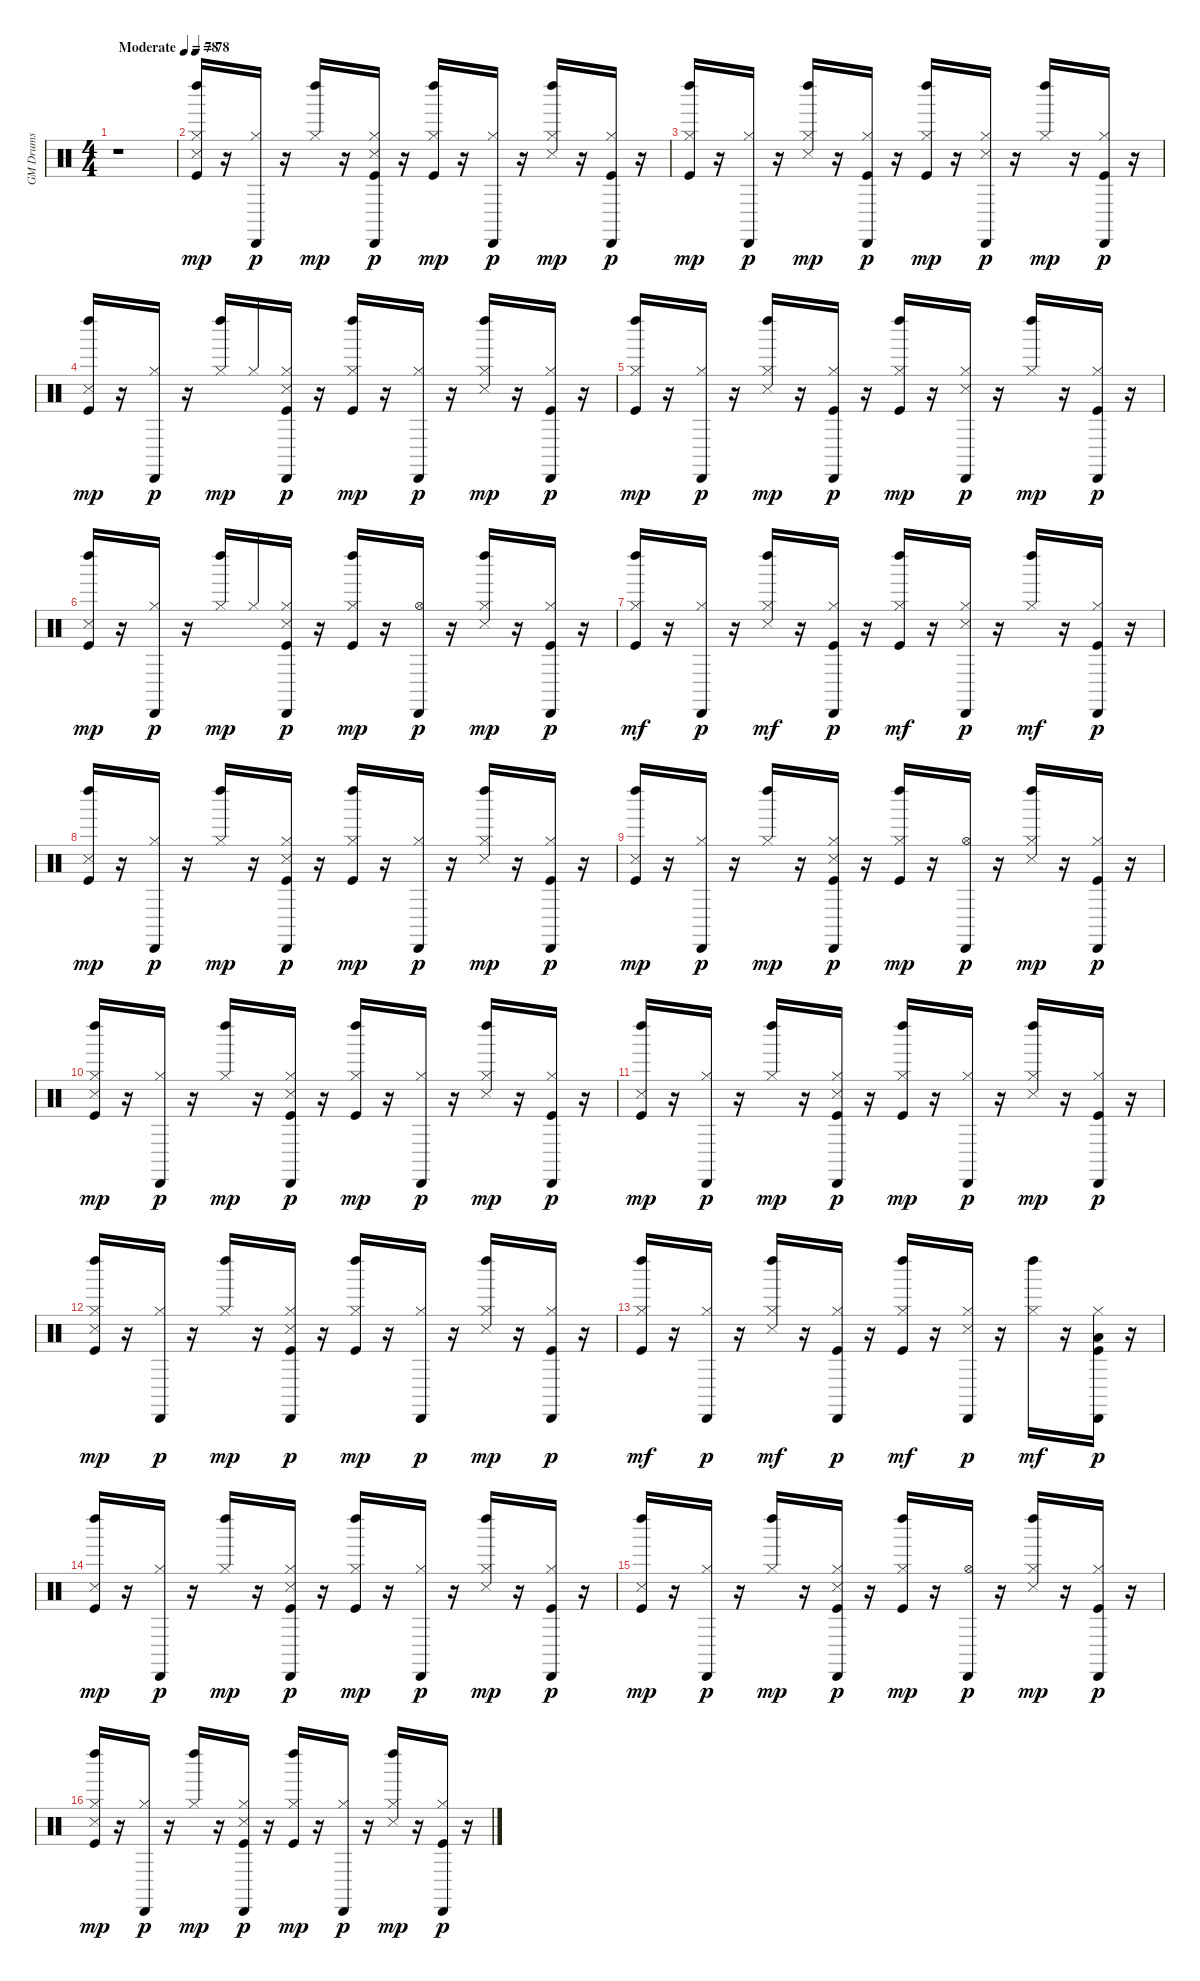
\track ("GM Drums" "GM Drums") {instrument percussion}
\staff {score}
\articulation defaults
\ts (4 4)
\tempo (78 "Moderate")
\clef neutral
\ks c
r.1{dy mp} |
\tempo 78
("Kick (hit)" "Snare (side stick) 3" "Hi-Hat (closed)" "Left Maraca (hit)").16 r.16 ("Hi-Hat (closed)" "Cabasa (hit)").16{dy p} r.16 ("Hi-Hat (closed)" "Left Maraca (hit)").16{dy mp} r.16 ("Kick (hit)" "Snare (side stick) 3" "Hi-Hat (closed)" "Cabasa (hit)").16{dy p} r.16 ("Kick (hit)" "Hi-Hat (closed)" "Left Maraca (hit)").16{dy mp} r.16 ("Hi-Hat (closed)" "Cabasa (hit)").16{dy p} r.16 ("Snare (side stick) 3" "Hi-Hat (closed)" "Left Maraca (hit)").16{dy mp} r.16 ("Kick (hit)" "Hi-Hat (closed)" "Cabasa (hit)").16{dy p} r.16 |
("Kick (hit)" "Hi-Hat (closed)" "Left Maraca (hit)").16{dy mp} r.16 ("Hi-Hat (closed)" "Cabasa (hit)").16{dy p} r.16 ("Snare (side stick) 3" "Hi-Hat (closed)" "Left Maraca (hit)").16{dy mp} r.16 ("Kick (hit)" "Hi-Hat (closed)" "Cabasa (hit)").16{dy p} r.16 ("Kick (hit)" "Hi-Hat (closed)" "Left Maraca (hit)").16{dy mp} r.16 ("Snare (side stick) 3" "Hi-Hat (closed)" "Cabasa (hit)").16{dy p} r.16 ("Hi-Hat (closed)" "Left Maraca (hit)").16{dy mp} r.16 ("Kick (hit)" "Hi-Hat (closed)" "Cabasa (hit)").16{dy p} r.16 |
("Kick (hit)" "Snare (side stick) 3" "Left Maraca (hit)").16{dy mp} r.16 ("Hi-Hat (closed)" "Cabasa (hit)").16{dy p} r.16 ("Hi-Hat (closed)" "Left Maraca (hit)").16{dy mp} "Hi-Hat (closed)".16 ("Kick (hit)" "Snare (side stick) 3" "Hi-Hat (closed)" "Cabasa (hit)").16{dy p} r.16 ("Kick (hit)" "Hi-Hat (closed)" "Left Maraca (hit)").16{dy mp} r.16 ("Hi-Hat (closed)" "Cabasa (hit)").16{dy p} r.16 ("Snare (side stick) 3" "Hi-Hat (closed)" "Left Maraca (hit)").16{dy mp} r.16 ("Kick (hit)" "Hi-Hat (closed)" "Cabasa (hit)").16{dy p} r.16 |
("Kick (hit)" "Hi-Hat (closed)" "Left Maraca (hit)").16{dy mp} r.16 ("Hi-Hat (closed)" "Cabasa (hit)").16{dy p} r.16 ("Snare (side stick) 3" "Hi-Hat (closed)" "Left Maraca (hit)").16{dy mp} r.16 ("Kick (hit)" "Hi-Hat (closed)" "Cabasa (hit)").16{dy p} r.16 ("Kick (hit)" "Hi-Hat (closed)" "Left Maraca (hit)").16{dy mp} r.16 ("Snare (side stick) 3" "Hi-Hat (closed)" "Cabasa (hit)").16{dy p} r.16 ("Hi-Hat (closed)" "Left Maraca (hit)").16{dy mp} r.16 ("Kick (hit)" "Hi-Hat (closed)" "Cabasa (hit)").16{dy p} r.16 |
("Kick (hit)" "Snare (side stick) 3" "Left Maraca (hit)").16{dy mp} r.16 ("Hi-Hat (closed)" "Cabasa (hit)").16{dy p} r.16 ("Hi-Hat (closed)" "Left Maraca (hit)").16{dy mp} "Hi-Hat (closed)".16 ("Kick (hit)" "Snare (side stick) 3" "Hi-Hat (closed)" "Cabasa (hit)").16{dy p} r.16 ("Kick (hit)" "Hi-Hat (closed)" "Left Maraca (hit)").16{dy mp} r.16 ("Hi-Hat (open)" "Cabasa (hit)").16{dy p} r.16 ("Snare (side stick) 3" "Hi-Hat (closed)" "Left Maraca (hit)").16{dy mp} r.16 ("Kick (hit)" "Hi-Hat (closed)" "Cabasa (hit)").16{dy p} r.16 |
("Kick (hit)" "Hi-Hat (closed)" "Left Maraca (hit)").16{dy mf} r.16 ("Hi-Hat (closed)" "Cabasa (hit)").16{dy p} r.16 ("Snare (side stick) 3" "Hi-Hat (closed)" "Left Maraca (hit)").16{dy mf} r.16 ("Kick (hit)" "Hi-Hat (closed)" "Cabasa (hit)").16{dy p} r.16 ("Kick (hit)" "Hi-Hat (closed)" "Left Maraca (hit)").16{dy mf} r.16 ("Snare (side stick) 3" "Hi-Hat (closed)" "Cabasa (hit)").16{dy p} r.16 ("Hi-Hat (closed)" "Left Maraca (hit)").16{dy mf} r.16 ("Kick (hit)" "Hi-Hat (closed)" "Cabasa (hit)").16{dy p} r.16 |
("Kick (hit)" "Snare (side stick) 3" "Left Maraca (hit)").16{dy mp} r.16 ("Hi-Hat (closed)" "Cabasa (hit)").16{dy p} r.16 ("Hi-Hat (closed)" "Left Maraca (hit)").16{dy mp} r.16 ("Kick (hit)" "Snare (side stick) 3" "Hi-Hat (closed)" "Cabasa (hit)").16{dy p} r.16 ("Kick (hit)" "Hi-Hat (closed)" "Left Maraca (hit)").16{dy mp} r.16 ("Hi-Hat (closed)" "Cabasa (hit)").16{dy p} r.16 ("Snare (side stick) 3" "Hi-Hat (closed)" "Left Maraca (hit)").16{dy mp} r.16 ("Kick (hit)" "Hi-Hat (closed)" "Cabasa (hit)").16{dy p} r.16 |
("Kick (hit)" "Snare (side stick) 3" "Left Maraca (hit)").16{dy mp} r.16 ("Hi-Hat (closed)" "Cabasa (hit)").16{dy p} r.16 ("Hi-Hat (closed)" "Left Maraca (hit)").16{dy mp} r.16 ("Kick (hit)" "Snare (side stick) 3" "Hi-Hat (closed)" "Cabasa (hit)").16{dy p} r.16 ("Kick (hit)" "Hi-Hat (closed)" "Left Maraca (hit)").16{dy mp} r.16 ("Hi-Hat (open)" "Cabasa (hit)").16{dy p} r.16 ("Snare (side stick) 3" "Hi-Hat (closed)" "Left Maraca (hit)").16{dy mp} r.16 ("Kick (hit)" "Hi-Hat (closed)" "Cabasa (hit)").16{dy p} r.16 |
("Kick (hit)" "Snare (side stick) 3" "Hi-Hat (closed)" "Left Maraca (hit)").16{dy mp} r.16 ("Hi-Hat (closed)" "Cabasa (hit)").16{dy p} r.16 ("Hi-Hat (closed)" "Left Maraca (hit)").16{dy mp} r.16 ("Kick (hit)" "Snare (side stick) 3" "Hi-Hat (closed)" "Cabasa (hit)").16{dy p} r.16 ("Kick (hit)" "Hi-Hat (closed)" "Left Maraca (hit)").16{dy mp} r.16 ("Hi-Hat (closed)" "Cabasa (hit)").16{dy p} r.16 ("Snare (side stick) 3" "Hi-Hat (closed)" "Left Maraca (hit)").16{dy mp} r.16 ("Kick (hit)" "Hi-Hat (closed)" "Cabasa (hit)").16{dy p} r.16 |
("Kick (hit)" "Snare (side stick) 3" "Left Maraca (hit)").16{dy mp} r.16 ("Hi-Hat (closed)" "Cabasa (hit)").16{dy p} r.16 ("Hi-Hat (closed)" "Left Maraca (hit)").16{dy mp} r.16 ("Kick (hit)" "Snare (side stick) 3" "Hi-Hat (closed)" "Cabasa (hit)").16{dy p} r.16 ("Kick (hit)" "Hi-Hat (closed)" "Left Maraca (hit)").16{dy mp} r.16 ("Hi-Hat (closed)" "Cabasa (hit)").16{dy p} r.16 ("Snare (side stick) 3" "Hi-Hat (closed)" "Left Maraca (hit)").16{dy mp} r.16 ("Kick (hit)" "Hi-Hat (closed)" "Cabasa (hit)").16{dy p} r.16 |
("Kick (hit)" "Snare (side stick) 3" "Hi-Hat (closed)" "Left Maraca (hit)").16{dy mp} r.16 ("Hi-Hat (closed)" "Cabasa (hit)").16{dy p} r.16 ("Hi-Hat (closed)" "Left Maraca (hit)").16{dy mp} r.16 ("Kick (hit)" "Snare (side stick) 3" "Hi-Hat (closed)" "Cabasa (hit)").16{dy p} r.16 ("Kick (hit)" "Hi-Hat (closed)" "Left Maraca (hit)").16{dy mp} r.16 ("Hi-Hat (closed)" "Cabasa (hit)").16{dy p} r.16 ("Snare (side stick) 3" "Hi-Hat (closed)" "Left Maraca (hit)").16{dy mp} r.16 ("Kick (hit)" "Hi-Hat (closed)" "Cabasa (hit)").16{dy p} r.16 |
("Kick (hit)" "Hi-Hat (closed)" "Left Maraca (hit)").16{dy mf} r.16 ("Hi-Hat (closed)" "Cabasa (hit)").16{dy p} r.16 ("Snare (side stick) 3" "Hi-Hat (closed)" "Left Maraca (hit)").16{dy mf} r.16 ("Kick (hit)" "Hi-Hat (closed)" "Cabasa (hit)").16{dy p} r.16 ("Kick (hit)" "Hi-Hat (closed)" "Left Maraca (hit)").16{dy mf} r.16 ("Snare (side stick) 3" "Hi-Hat (closed)" "Cabasa (hit)").16{dy p} r.16 ("Hi-Hat (closed)" "Left Maraca (hit)").16{dy mf} r.16 ("Kick (hit)" "Hi-Hat (closed)" "Low Tom (hit)" "Cabasa (hit)").16{dy p} r.16 |
("Kick (hit)" "Snare (side stick) 3" "Left Maraca (hit)").16{dy mp} r.16 ("Hi-Hat (closed)" "Cabasa (hit)").16{dy p} r.16 ("Hi-Hat (closed)" "Left Maraca (hit)").16{dy mp} r.16 ("Kick (hit)" "Snare (side stick) 3" "Hi-Hat (closed)" "Cabasa (hit)").16{dy p} r.16 ("Kick (hit)" "Hi-Hat (closed)" "Left Maraca (hit)").16{dy mp} r.16 ("Hi-Hat (closed)" "Cabasa (hit)").16{dy p} r.16 ("Snare (side stick) 3" "Hi-Hat (closed)" "Left Maraca (hit)").16{dy mp} r.16 ("Kick (hit)" "Hi-Hat (closed)" "Cabasa (hit)").16{dy p} r.16 |
("Kick (hit)" "Snare (side stick) 3" "Left Maraca (hit)").16{dy mp} r.16 ("Hi-Hat (closed)" "Cabasa (hit)").16{dy p} r.16 ("Hi-Hat (closed)" "Left Maraca (hit)").16{dy mp} r.16 ("Kick (hit)" "Snare (side stick) 3" "Hi-Hat (closed)" "Cabasa (hit)").16{dy p} r.16 ("Kick (hit)" "Hi-Hat (closed)" "Left Maraca (hit)").16{dy mp} r.16 ("Hi-Hat (open)" "Cabasa (hit)").16{dy p} r.16 ("Snare (side stick) 3" "Hi-Hat (closed)" "Left Maraca (hit)").16{dy mp} r.16 ("Kick (hit)" "Hi-Hat (closed)" "Cabasa (hit)").16{dy p} r.16 |
("Kick (hit)" "Snare (side stick) 3" "Hi-Hat (closed)" "Left Maraca (hit)").16{dy mp} r.16 ("Hi-Hat (closed)" "Cabasa (hit)").16{dy p} r.16 ("Hi-Hat (closed)" "Left Maraca (hit)").16{dy mp} r.16 ("Kick (hit)" "Snare (side stick) 3" "Hi-Hat (closed)" "Cabasa (hit)").16{dy p} r.16 ("Kick (hit)" "Hi-Hat (closed)" "Left Maraca (hit)").16{dy mp} r.16 ("Hi-Hat (closed)" "Cabasa (hit)").16{dy p} r.16 ("Snare (side stick) 3" "Hi-Hat (closed)" "Left Maraca (hit)").16{dy mp} r.16 ("Kick (hit)" "Hi-Hat (closed)" "Cabasa (hit)").16{dy p} r.16
